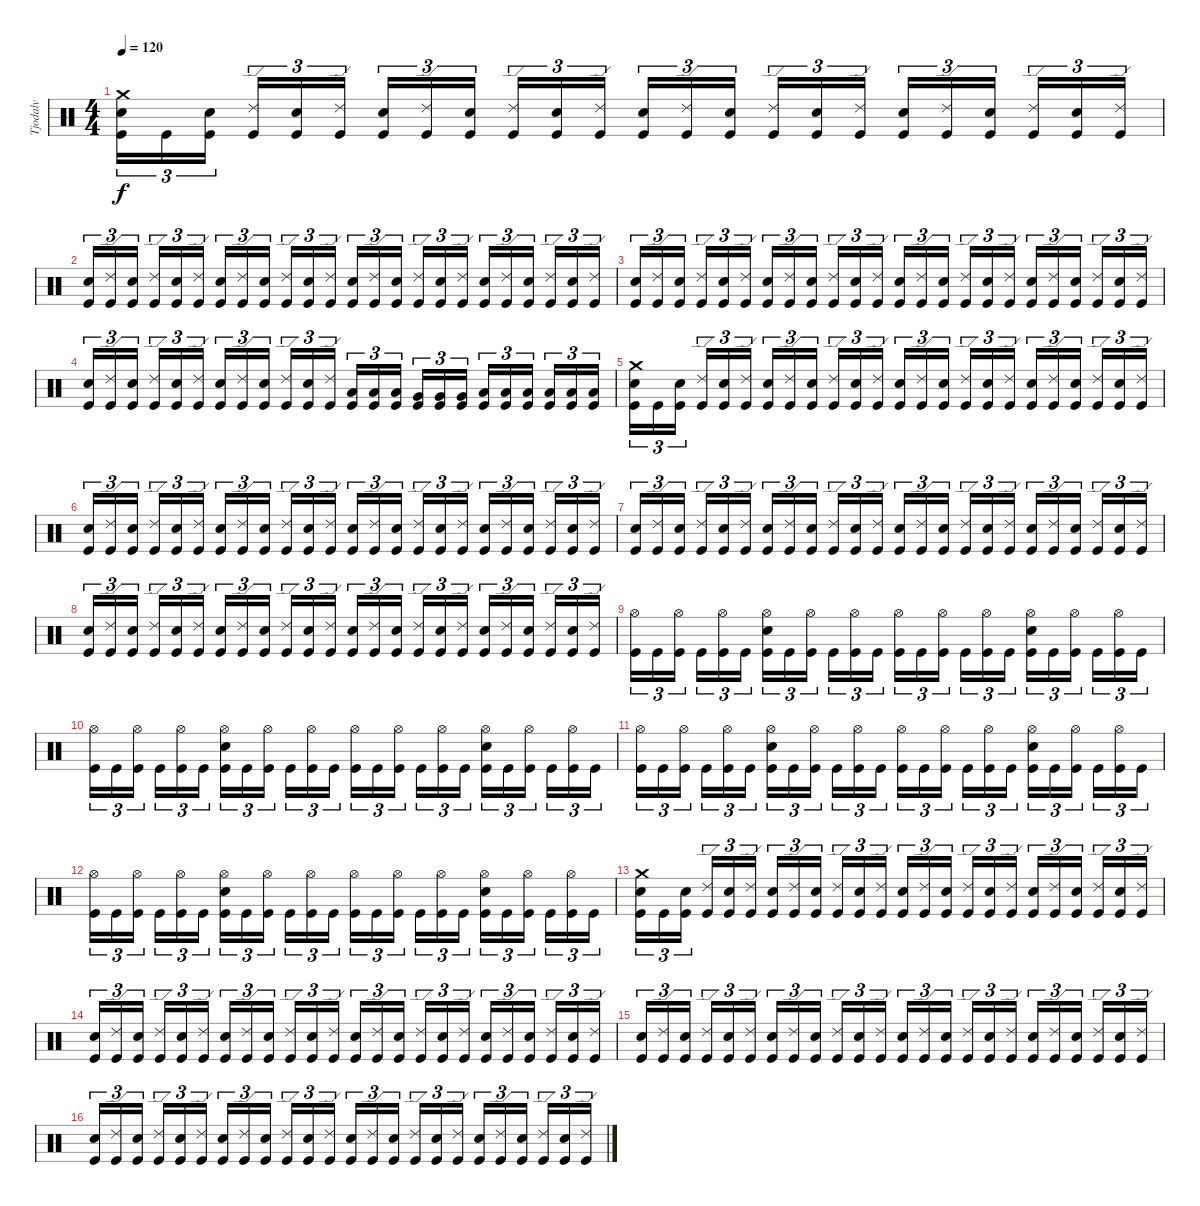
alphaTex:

\track ("Tjodalv" "Tjodalv") {instrument percussion}
\staff {score}
\articulation defaults
\ts (4 4)
\tempo 120
\clef neutral
\ks c
("Crash medium (hit)" "Snare (hit) 2" "Kick (hit)").16{tu (3 2) dy f} "Kick (hit)".16{tu (3 2)} ("Snare (hit) 2" "Kick (hit)").16{tu (3 2)} ("Ride (edge) 2" "Kick (hit)").16{tu (3 2)} ("Snare (hit) 2" "Kick (hit)").16{tu (3 2)} ("Ride (edge) 2" "Kick (hit)").16{tu (3 2)} ("Snare (hit) 2" "Kick (hit)").16{tu (3 2)} ("Ride (edge) 2" "Kick (hit)").16{tu (3 2)} ("Snare (hit) 2" "Kick (hit)").16{tu (3 2)} ("Ride (edge) 2" "Kick (hit)").16{tu (3 2)} ("Snare (hit) 2" "Kick (hit)").16{tu (3 2)} ("Ride (edge) 2" "Kick (hit)").16{tu (3 2)} ("Snare (hit) 2" "Kick (hit)").16{tu (3 2)} ("Ride (edge) 2" "Kick (hit)").16{tu (3 2)} ("Snare (hit) 2" "Kick (hit)").16{tu (3 2)} ("Ride (edge) 2" "Kick (hit)").16{tu (3 2)} ("Snare (hit) 2" "Kick (hit)").16{tu (3 2)} ("Ride (edge) 2" "Kick (hit)").16{tu (3 2)} ("Snare (hit) 2" "Kick (hit)").16{tu (3 2)} ("Ride (edge) 2" "Kick (hit)").16{tu (3 2)} ("Snare (hit) 2" "Kick (hit)").16{tu (3 2)} ("Ride (edge) 2" "Kick (hit)").16{tu (3 2)} ("Snare (hit) 2" "Kick (hit)").16{tu (3 2)} ("Ride (edge) 2" "Kick (hit)").16{tu (3 2)} |
("Snare (hit) 2" "Kick (hit)").16{tu (3 2)} ("Ride (edge) 2" "Kick (hit)").16{tu (3 2)} ("Snare (hit) 2" "Kick (hit)").16{tu (3 2)} ("Ride (edge) 2" "Kick (hit)").16{tu (3 2)} ("Snare (hit) 2" "Kick (hit)").16{tu (3 2)} ("Ride (edge) 2" "Kick (hit)").16{tu (3 2)} ("Snare (hit) 2" "Kick (hit)").16{tu (3 2)} ("Ride (edge) 2" "Kick (hit)").16{tu (3 2)} ("Snare (hit) 2" "Kick (hit)").16{tu (3 2)} ("Ride (edge) 2" "Kick (hit)").16{tu (3 2)} ("Snare (hit) 2" "Kick (hit)").16{tu (3 2)} ("Ride (edge) 2" "Kick (hit)").16{tu (3 2)} ("Snare (hit) 2" "Kick (hit)").16{tu (3 2)} ("Ride (edge) 2" "Kick (hit)").16{tu (3 2)} ("Snare (hit) 2" "Kick (hit)").16{tu (3 2)} ("Ride (edge) 2" "Kick (hit)").16{tu (3 2)} ("Snare (hit) 2" "Kick (hit)").16{tu (3 2)} ("Ride (edge) 2" "Kick (hit)").16{tu (3 2)} ("Snare (hit) 2" "Kick (hit)").16{tu (3 2)} ("Ride (edge) 2" "Kick (hit)").16{tu (3 2)} ("Snare (hit) 2" "Kick (hit)").16{tu (3 2)} ("Ride (edge) 2" "Kick (hit)").16{tu (3 2)} ("Snare (hit) 2" "Kick (hit)").16{tu (3 2)} ("Ride (edge) 2" "Kick (hit)").16{tu (3 2)} |
("Snare (hit) 2" "Kick (hit)").16{tu (3 2)} ("Ride (edge) 2" "Kick (hit)").16{tu (3 2)} ("Snare (hit) 2" "Kick (hit)").16{tu (3 2)} ("Ride (edge) 2" "Kick (hit)").16{tu (3 2)} ("Snare (hit) 2" "Kick (hit)").16{tu (3 2)} ("Ride (edge) 2" "Kick (hit)").16{tu (3 2)} ("Snare (hit) 2" "Kick (hit)").16{tu (3 2)} ("Ride (edge) 2" "Kick (hit)").16{tu (3 2)} ("Snare (hit) 2" "Kick (hit)").16{tu (3 2)} ("Ride (edge) 2" "Kick (hit)").16{tu (3 2)} ("Snare (hit) 2" "Kick (hit)").16{tu (3 2)} ("Ride (edge) 2" "Kick (hit)").16{tu (3 2)} ("Snare (hit) 2" "Kick (hit)").16{tu (3 2)} ("Ride (edge) 2" "Kick (hit)").16{tu (3 2)} ("Snare (hit) 2" "Kick (hit)").16{tu (3 2)} ("Ride (edge) 2" "Kick (hit)").16{tu (3 2)} ("Snare (hit) 2" "Kick (hit)").16{tu (3 2)} ("Ride (edge) 2" "Kick (hit)").16{tu (3 2)} ("Snare (hit) 2" "Kick (hit)").16{tu (3 2)} ("Ride (edge) 2" "Kick (hit)").16{tu (3 2)} ("Snare (hit) 2" "Kick (hit)").16{tu (3 2)} ("Ride (edge) 2" "Kick (hit)").16{tu (3 2)} ("Snare (hit) 2" "Kick (hit)").16{tu (3 2)} ("Ride (edge) 2" "Kick (hit)").16{tu (3 2)} |
("Snare (hit) 2" "Kick (hit)").16{tu (3 2)} ("Ride (edge) 2" "Kick (hit)").16{tu (3 2)} ("Snare (hit) 2" "Kick (hit)").16{tu (3 2)} ("Ride (edge) 2" "Kick (hit)").16{tu (3 2)} ("Snare (hit) 2" "Kick (hit)").16{tu (3 2)} ("Ride (edge) 2" "Kick (hit)").16{tu (3 2)} ("Snare (hit) 2" "Kick (hit)").16{tu (3 2)} ("Ride (edge) 2" "Kick (hit)").16{tu (3 2)} ("Snare (hit) 2" "Kick (hit)").16{tu (3 2)} ("Ride (edge) 2" "Kick (hit)").16{tu (3 2)} ("Snare (hit) 2" "Kick (hit)").16{tu (3 2)} ("Ride (edge) 2" "Kick (hit)").16{tu (3 2)} ("Low Floor Tom (hit)" "Kick (hit)").16{tu (3 2)} ("Low Floor Tom (hit)" "Kick (hit)").16{tu (3 2)} ("Low Floor Tom (hit)" "Kick (hit)").16{tu (3 2)} ("Very Low Tom (hit)" "Kick (hit)").16{tu (3 2)} ("Very Low Tom (hit)" "Kick (hit)").16{tu (3 2)} ("Very Low Tom (hit)" "Kick (hit)").16{tu (3 2)} ("Low Floor Tom (hit)" "Kick (hit)").16{tu (3 2)} ("Low Floor Tom (hit)" "Kick (hit)").16{tu (3 2)} ("Low Floor Tom (hit)" "Kick (hit)").16{tu (3 2)} ("Low Tom (hit)" "Kick (hit)").16{tu (3 2)} ("Low Tom (hit)" "Kick (hit)").16{tu (3 2)} ("Low Tom (hit)" "Kick (hit)").16{tu (3 2)} |
("Crash medium (hit)" "Snare (hit) 2" "Kick (hit)").16{tu (3 2)} "Kick (hit)".16{tu (3 2)} ("Snare (hit) 2" "Kick (hit)").16{tu (3 2)} ("Ride (edge) 2" "Kick (hit)").16{tu (3 2)} ("Snare (hit) 2" "Kick (hit)").16{tu (3 2)} ("Ride (edge) 2" "Kick (hit)").16{tu (3 2)} ("Snare (hit) 2" "Kick (hit)").16{tu (3 2)} ("Ride (edge) 2" "Kick (hit)").16{tu (3 2)} ("Snare (hit) 2" "Kick (hit)").16{tu (3 2)} ("Ride (edge) 2" "Kick (hit)").16{tu (3 2)} ("Snare (hit) 2" "Kick (hit)").16{tu (3 2)} ("Ride (edge) 2" "Kick (hit)").16{tu (3 2)} ("Snare (hit) 2" "Kick (hit)").16{tu (3 2)} ("Ride (edge) 2" "Kick (hit)").16{tu (3 2)} ("Snare (hit) 2" "Kick (hit)").16{tu (3 2)} ("Ride (edge) 2" "Kick (hit)").16{tu (3 2)} ("Snare (hit) 2" "Kick (hit)").16{tu (3 2)} ("Ride (edge) 2" "Kick (hit)").16{tu (3 2)} ("Snare (hit) 2" "Kick (hit)").16{tu (3 2)} ("Ride (edge) 2" "Kick (hit)").16{tu (3 2)} ("Snare (hit) 2" "Kick (hit)").16{tu (3 2)} ("Ride (edge) 2" "Kick (hit)").16{tu (3 2)} ("Snare (hit) 2" "Kick (hit)").16{tu (3 2)} ("Ride (edge) 2" "Kick (hit)").16{tu (3 2)} |
("Snare (hit) 2" "Kick (hit)").16{tu (3 2)} ("Ride (edge) 2" "Kick (hit)").16{tu (3 2)} ("Snare (hit) 2" "Kick (hit)").16{tu (3 2)} ("Ride (edge) 2" "Kick (hit)").16{tu (3 2)} ("Snare (hit) 2" "Kick (hit)").16{tu (3 2)} ("Ride (edge) 2" "Kick (hit)").16{tu (3 2)} ("Snare (hit) 2" "Kick (hit)").16{tu (3 2)} ("Ride (edge) 2" "Kick (hit)").16{tu (3 2)} ("Snare (hit) 2" "Kick (hit)").16{tu (3 2)} ("Ride (edge) 2" "Kick (hit)").16{tu (3 2)} ("Snare (hit) 2" "Kick (hit)").16{tu (3 2)} ("Ride (edge) 2" "Kick (hit)").16{tu (3 2)} ("Snare (hit) 2" "Kick (hit)").16{tu (3 2)} ("Ride (edge) 2" "Kick (hit)").16{tu (3 2)} ("Snare (hit) 2" "Kick (hit)").16{tu (3 2)} ("Ride (edge) 2" "Kick (hit)").16{tu (3 2)} ("Snare (hit) 2" "Kick (hit)").16{tu (3 2)} ("Ride (edge) 2" "Kick (hit)").16{tu (3 2)} ("Snare (hit) 2" "Kick (hit)").16{tu (3 2)} ("Ride (edge) 2" "Kick (hit)").16{tu (3 2)} ("Snare (hit) 2" "Kick (hit)").16{tu (3 2)} ("Ride (edge) 2" "Kick (hit)").16{tu (3 2)} ("Snare (hit) 2" "Kick (hit)").16{tu (3 2)} ("Ride (edge) 2" "Kick (hit)").16{tu (3 2)} |
("Snare (hit) 2" "Kick (hit)").16{tu (3 2)} ("Ride (edge) 2" "Kick (hit)").16{tu (3 2)} ("Snare (hit) 2" "Kick (hit)").16{tu (3 2)} ("Ride (edge) 2" "Kick (hit)").16{tu (3 2)} ("Snare (hit) 2" "Kick (hit)").16{tu (3 2)} ("Ride (edge) 2" "Kick (hit)").16{tu (3 2)} ("Snare (hit) 2" "Kick (hit)").16{tu (3 2)} ("Ride (edge) 2" "Kick (hit)").16{tu (3 2)} ("Snare (hit) 2" "Kick (hit)").16{tu (3 2)} ("Ride (edge) 2" "Kick (hit)").16{tu (3 2)} ("Snare (hit) 2" "Kick (hit)").16{tu (3 2)} ("Ride (edge) 2" "Kick (hit)").16{tu (3 2)} ("Snare (hit) 2" "Kick (hit)").16{tu (3 2)} ("Ride (edge) 2" "Kick (hit)").16{tu (3 2)} ("Snare (hit) 2" "Kick (hit)").16{tu (3 2)} ("Ride (edge) 2" "Kick (hit)").16{tu (3 2)} ("Snare (hit) 2" "Kick (hit)").16{tu (3 2)} ("Ride (edge) 2" "Kick (hit)").16{tu (3 2)} ("Snare (hit) 2" "Kick (hit)").16{tu (3 2)} ("Ride (edge) 2" "Kick (hit)").16{tu (3 2)} ("Snare (hit) 2" "Kick (hit)").16{tu (3 2)} ("Ride (edge) 2" "Kick (hit)").16{tu (3 2)} ("Snare (hit) 2" "Kick (hit)").16{tu (3 2)} ("Ride (edge) 2" "Kick (hit)").16{tu (3 2)} |
("Snare (hit) 2" "Kick (hit)").16{tu (3 2)} ("Ride (edge) 2" "Kick (hit)").16{tu (3 2)} ("Snare (hit) 2" "Kick (hit)").16{tu (3 2)} ("Ride (edge) 2" "Kick (hit)").16{tu (3 2)} ("Snare (hit) 2" "Kick (hit)").16{tu (3 2)} ("Ride (edge) 2" "Kick (hit)").16{tu (3 2)} ("Snare (hit) 2" "Kick (hit)").16{tu (3 2)} ("Ride (edge) 2" "Kick (hit)").16{tu (3 2)} ("Snare (hit) 2" "Kick (hit)").16{tu (3 2)} ("Ride (edge) 2" "Kick (hit)").16{tu (3 2)} ("Snare (hit) 2" "Kick (hit)").16{tu (3 2)} ("Ride (edge) 2" "Kick (hit)").16{tu (3 2)} ("Snare (hit) 2" "Kick (hit)").16{tu (3 2)} ("Ride (edge) 2" "Kick (hit)").16{tu (3 2)} ("Snare (hit) 2" "Kick (hit)").16{tu (3 2)} ("Ride (edge) 2" "Kick (hit)").16{tu (3 2)} ("Snare (hit) 2" "Kick (hit)").16{tu (3 2)} ("Ride (edge) 2" "Kick (hit)").16{tu (3 2)} ("Snare (hit) 2" "Kick (hit)").16{tu (3 2)} ("Ride (edge) 2" "Kick (hit)").16{tu (3 2)} ("Snare (hit) 2" "Kick (hit)").16{tu (3 2)} ("Ride (edge) 2" "Kick (hit)").16{tu (3 2)} ("Snare (hit) 2" "Kick (hit)").16{tu (3 2)} ("Ride (edge) 2" "Kick (hit)").16{tu (3 2)} |
("Hi-Hat (open)" "Kick (hit)").16{tu (3 2)} "Kick (hit)".16{tu (3 2)} ("Hi-Hat (open)" "Kick (hit)").16{tu (3 2)} "Kick (hit)".16{tu (3 2)} ("Hi-Hat (open)" "Kick (hit)").16{tu (3 2)} "Kick (hit)".16{tu (3 2)} ("Hi-Hat (open)" "Snare (hit) 2" "Kick (hit)").16{tu (3 2)} "Kick (hit)".16{tu (3 2)} ("Hi-Hat (open)" "Kick (hit)").16{tu (3 2)} "Kick (hit)".16{tu (3 2)} ("Hi-Hat (open)" "Kick (hit)").16{tu (3 2)} "Kick (hit)".16{tu (3 2)} ("Hi-Hat (open)" "Kick (hit)").16{tu (3 2)} "Kick (hit)".16{tu (3 2)} ("Hi-Hat (open)" "Kick (hit)").16{tu (3 2)} "Kick (hit)".16{tu (3 2)} ("Hi-Hat (open)" "Kick (hit)").16{tu (3 2)} "Kick (hit)".16{tu (3 2)} ("Hi-Hat (open)" "Snare (hit) 2" "Kick (hit)").16{tu (3 2)} "Kick (hit)".16{tu (3 2)} ("Hi-Hat (open)" "Kick (hit)").16{tu (3 2)} "Kick (hit)".16{tu (3 2)} ("Hi-Hat (open)" "Kick (hit)").16{tu (3 2)} "Kick (hit)".16{tu (3 2)} |
("Hi-Hat (open)" "Kick (hit)").16{tu (3 2)} "Kick (hit)".16{tu (3 2)} ("Hi-Hat (open)" "Kick (hit)").16{tu (3 2)} "Kick (hit)".16{tu (3 2)} ("Hi-Hat (open)" "Kick (hit)").16{tu (3 2)} "Kick (hit)".16{tu (3 2)} ("Hi-Hat (open)" "Snare (hit) 2" "Kick (hit)").16{tu (3 2)} "Kick (hit)".16{tu (3 2)} ("Hi-Hat (open)" "Kick (hit)").16{tu (3 2)} "Kick (hit)".16{tu (3 2)} ("Hi-Hat (open)" "Kick (hit)").16{tu (3 2)} "Kick (hit)".16{tu (3 2)} ("Hi-Hat (open)" "Kick (hit)").16{tu (3 2)} "Kick (hit)".16{tu (3 2)} ("Hi-Hat (open)" "Kick (hit)").16{tu (3 2)} "Kick (hit)".16{tu (3 2)} ("Hi-Hat (open)" "Kick (hit)").16{tu (3 2)} "Kick (hit)".16{tu (3 2)} ("Hi-Hat (open)" "Snare (hit) 2" "Kick (hit)").16{tu (3 2)} "Kick (hit)".16{tu (3 2)} ("Hi-Hat (open)" "Kick (hit)").16{tu (3 2)} "Kick (hit)".16{tu (3 2)} ("Hi-Hat (open)" "Kick (hit)").16{tu (3 2)} "Kick (hit)".16{tu (3 2)} |
("Hi-Hat (open)" "Kick (hit)").16{tu (3 2)} "Kick (hit)".16{tu (3 2)} ("Hi-Hat (open)" "Kick (hit)").16{tu (3 2)} "Kick (hit)".16{tu (3 2)} ("Hi-Hat (open)" "Kick (hit)").16{tu (3 2)} "Kick (hit)".16{tu (3 2)} ("Hi-Hat (open)" "Snare (hit) 2" "Kick (hit)").16{tu (3 2)} "Kick (hit)".16{tu (3 2)} ("Hi-Hat (open)" "Kick (hit)").16{tu (3 2)} "Kick (hit)".16{tu (3 2)} ("Hi-Hat (open)" "Kick (hit)").16{tu (3 2)} "Kick (hit)".16{tu (3 2)} ("Hi-Hat (open)" "Kick (hit)").16{tu (3 2)} "Kick (hit)".16{tu (3 2)} ("Hi-Hat (open)" "Kick (hit)").16{tu (3 2)} "Kick (hit)".16{tu (3 2)} ("Hi-Hat (open)" "Kick (hit)").16{tu (3 2)} "Kick (hit)".16{tu (3 2)} ("Hi-Hat (open)" "Snare (hit) 2" "Kick (hit)").16{tu (3 2)} "Kick (hit)".16{tu (3 2)} ("Hi-Hat (open)" "Kick (hit)").16{tu (3 2)} "Kick (hit)".16{tu (3 2)} ("Hi-Hat (open)" "Kick (hit)").16{tu (3 2)} "Kick (hit)".16{tu (3 2)} |
("Hi-Hat (open)" "Kick (hit)").16{tu (3 2)} "Kick (hit)".16{tu (3 2)} ("Hi-Hat (open)" "Kick (hit)").16{tu (3 2)} "Kick (hit)".16{tu (3 2)} ("Hi-Hat (open)" "Kick (hit)").16{tu (3 2)} "Kick (hit)".16{tu (3 2)} ("Hi-Hat (open)" "Snare (hit) 2" "Kick (hit)").16{tu (3 2)} "Kick (hit)".16{tu (3 2)} ("Hi-Hat (open)" "Kick (hit)").16{tu (3 2)} "Kick (hit)".16{tu (3 2)} ("Hi-Hat (open)" "Kick (hit)").16{tu (3 2)} "Kick (hit)".16{tu (3 2)} ("Hi-Hat (open)" "Kick (hit)").16{tu (3 2)} "Kick (hit)".16{tu (3 2)} ("Hi-Hat (open)" "Kick (hit)").16{tu (3 2)} "Kick (hit)".16{tu (3 2)} ("Hi-Hat (open)" "Kick (hit)").16{tu (3 2)} "Kick (hit)".16{tu (3 2)} ("Hi-Hat (open)" "Snare (hit) 2" "Kick (hit)").16{tu (3 2)} "Kick (hit)".16{tu (3 2)} ("Hi-Hat (open)" "Kick (hit)").16{tu (3 2)} "Kick (hit)".16{tu (3 2)} ("Hi-Hat (open)" "Kick (hit)").16{tu (3 2)} "Kick (hit)".16{tu (3 2)} |
("Crash medium (hit)" "Snare (hit) 2" "Kick (hit)").16{tu (3 2)} "Kick (hit)".16{tu (3 2)} ("Snare (hit) 2" "Kick (hit)").16{tu (3 2)} ("Ride (edge) 2" "Kick (hit)").16{tu (3 2)} ("Snare (hit) 2" "Kick (hit)").16{tu (3 2)} ("Ride (edge) 2" "Kick (hit)").16{tu (3 2)} ("Snare (hit) 2" "Kick (hit)").16{tu (3 2)} ("Ride (edge) 2" "Kick (hit)").16{tu (3 2)} ("Snare (hit) 2" "Kick (hit)").16{tu (3 2)} ("Ride (edge) 2" "Kick (hit)").16{tu (3 2)} ("Snare (hit) 2" "Kick (hit)").16{tu (3 2)} ("Ride (edge) 2" "Kick (hit)").16{tu (3 2)} ("Snare (hit) 2" "Kick (hit)").16{tu (3 2)} ("Ride (edge) 2" "Kick (hit)").16{tu (3 2)} ("Snare (hit) 2" "Kick (hit)").16{tu (3 2)} ("Ride (edge) 2" "Kick (hit)").16{tu (3 2)} ("Snare (hit) 2" "Kick (hit)").16{tu (3 2)} ("Ride (edge) 2" "Kick (hit)").16{tu (3 2)} ("Snare (hit) 2" "Kick (hit)").16{tu (3 2)} ("Ride (edge) 2" "Kick (hit)").16{tu (3 2)} ("Snare (hit) 2" "Kick (hit)").16{tu (3 2)} ("Ride (edge) 2" "Kick (hit)").16{tu (3 2)} ("Snare (hit) 2" "Kick (hit)").16{tu (3 2)} ("Ride (edge) 2" "Kick (hit)").16{tu (3 2)} |
("Snare (hit) 2" "Kick (hit)").16{tu (3 2)} ("Ride (edge) 2" "Kick (hit)").16{tu (3 2)} ("Snare (hit) 2" "Kick (hit)").16{tu (3 2)} ("Ride (edge) 2" "Kick (hit)").16{tu (3 2)} ("Snare (hit) 2" "Kick (hit)").16{tu (3 2)} ("Ride (edge) 2" "Kick (hit)").16{tu (3 2)} ("Snare (hit) 2" "Kick (hit)").16{tu (3 2)} ("Ride (edge) 2" "Kick (hit)").16{tu (3 2)} ("Snare (hit) 2" "Kick (hit)").16{tu (3 2)} ("Ride (edge) 2" "Kick (hit)").16{tu (3 2)} ("Snare (hit) 2" "Kick (hit)").16{tu (3 2)} ("Ride (edge) 2" "Kick (hit)").16{tu (3 2)} ("Snare (hit) 2" "Kick (hit)").16{tu (3 2)} ("Ride (edge) 2" "Kick (hit)").16{tu (3 2)} ("Snare (hit) 2" "Kick (hit)").16{tu (3 2)} ("Ride (edge) 2" "Kick (hit)").16{tu (3 2)} ("Snare (hit) 2" "Kick (hit)").16{tu (3 2)} ("Ride (edge) 2" "Kick (hit)").16{tu (3 2)} ("Snare (hit) 2" "Kick (hit)").16{tu (3 2)} ("Ride (edge) 2" "Kick (hit)").16{tu (3 2)} ("Snare (hit) 2" "Kick (hit)").16{tu (3 2)} ("Ride (edge) 2" "Kick (hit)").16{tu (3 2)} ("Snare (hit) 2" "Kick (hit)").16{tu (3 2)} ("Ride (edge) 2" "Kick (hit)").16{tu (3 2)} |
("Snare (hit) 2" "Kick (hit)").16{tu (3 2)} ("Ride (edge) 2" "Kick (hit)").16{tu (3 2)} ("Snare (hit) 2" "Kick (hit)").16{tu (3 2)} ("Ride (edge) 2" "Kick (hit)").16{tu (3 2)} ("Snare (hit) 2" "Kick (hit)").16{tu (3 2)} ("Ride (edge) 2" "Kick (hit)").16{tu (3 2)} ("Snare (hit) 2" "Kick (hit)").16{tu (3 2)} ("Ride (edge) 2" "Kick (hit)").16{tu (3 2)} ("Snare (hit) 2" "Kick (hit)").16{tu (3 2)} ("Ride (edge) 2" "Kick (hit)").16{tu (3 2)} ("Snare (hit) 2" "Kick (hit)").16{tu (3 2)} ("Ride (edge) 2" "Kick (hit)").16{tu (3 2)} ("Snare (hit) 2" "Kick (hit)").16{tu (3 2)} ("Ride (edge) 2" "Kick (hit)").16{tu (3 2)} ("Snare (hit) 2" "Kick (hit)").16{tu (3 2)} ("Ride (edge) 2" "Kick (hit)").16{tu (3 2)} ("Snare (hit) 2" "Kick (hit)").16{tu (3 2)} ("Ride (edge) 2" "Kick (hit)").16{tu (3 2)} ("Snare (hit) 2" "Kick (hit)").16{tu (3 2)} ("Ride (edge) 2" "Kick (hit)").16{tu (3 2)} ("Snare (hit) 2" "Kick (hit)").16{tu (3 2)} ("Ride (edge) 2" "Kick (hit)").16{tu (3 2)} ("Snare (hit) 2" "Kick (hit)").16{tu (3 2)} ("Ride (edge) 2" "Kick (hit)").16{tu (3 2)} |
("Snare (hit) 2" "Kick (hit)").16{tu (3 2)} ("Ride (edge) 2" "Kick (hit)").16{tu (3 2)} ("Snare (hit) 2" "Kick (hit)").16{tu (3 2)} ("Ride (edge) 2" "Kick (hit)").16{tu (3 2)} ("Snare (hit) 2" "Kick (hit)").16{tu (3 2)} ("Ride (edge) 2" "Kick (hit)").16{tu (3 2)} ("Snare (hit) 2" "Kick (hit)").16{tu (3 2)} ("Ride (edge) 2" "Kick (hit)").16{tu (3 2)} ("Snare (hit) 2" "Kick (hit)").16{tu (3 2)} ("Ride (edge) 2" "Kick (hit)").16{tu (3 2)} ("Snare (hit) 2" "Kick (hit)").16{tu (3 2)} ("Ride (edge) 2" "Kick (hit)").16{tu (3 2)} ("Snare (hit) 2" "Kick (hit)").16{tu (3 2)} ("Ride (edge) 2" "Kick (hit)").16{tu (3 2)} ("Snare (hit) 2" "Kick (hit)").16{tu (3 2)} ("Ride (edge) 2" "Kick (hit)").16{tu (3 2)} ("Snare (hit) 2" "Kick (hit)").16{tu (3 2)} ("Ride (edge) 2" "Kick (hit)").16{tu (3 2)} ("Snare (hit) 2" "Kick (hit)").16{tu (3 2)} ("Ride (edge) 2" "Kick (hit)").16{tu (3 2)} ("Snare (hit) 2" "Kick (hit)").16{tu (3 2)} ("Ride (edge) 2" "Kick (hit)").16{tu (3 2)} ("Snare (hit) 2" "Kick (hit)").16{tu (3 2)} ("Ride (edge) 2" "Kick (hit)").16{tu (3 2)}
